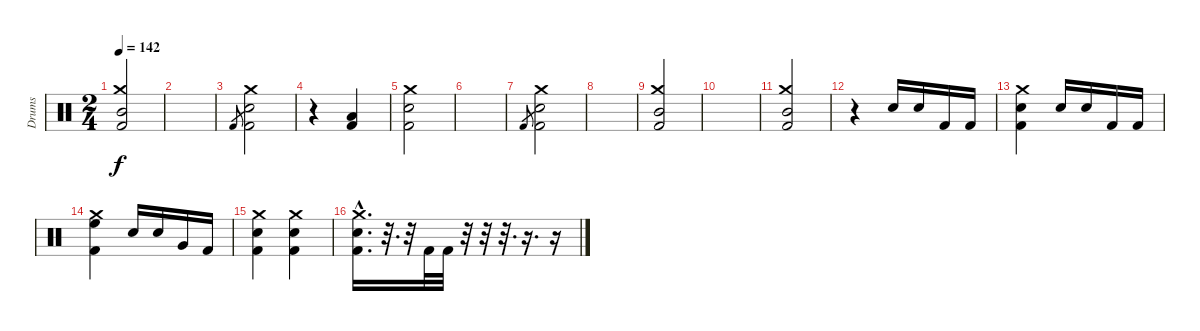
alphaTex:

\track ("Drums" "Drums") {instrument percussion}
\staff {score}
\articulation defaults
\ts (2 4)
\tempo 142
\clef neutral
\ks c
("Mid Tom (hit)" "Crash medium (hit)" "Kick (hit) 2").2{dy f} |
|
"Kick (hit) 2".8{gr} ("Crash medium (hit)" "Electric Snare (hit)" "Kick (hit) 2").2 |
r.4 ("Low Floor Tom (hit)" "Kick (hit) 2").4 |
("Electric Snare (hit)" "Crash medium (hit)" "Kick (hit) 2").2 |
|
"Kick (hit) 2".8{gr} ("Electric Snare (hit)" "Crash medium (hit)" "Kick (hit) 2").2 |
|
("Crash medium (hit)" "Mid Tom (hit)" "Kick (hit) 2").2 |
|
("Crash medium (hit)" "Mid Tom (hit)" "Kick (hit) 2").2 |
r.4 "Electric Snare (hit)".16 "Electric Snare (hit)".16 "Kick (hit) 2".16 "Kick (hit) 2".16 |
("Crash medium (hit)" "Electric Snare (hit)" "Kick (hit) 2").4 "Electric Snare (hit)".16 "Electric Snare (hit)".16 "Kick (hit) 2".16 "Kick (hit) 2".16 |
("Crash medium (hit)" "High Floor Tom (hit)" "Kick (hit) 2").4 "Electric Snare (hit)".16 "Electric Snare (hit)".16 "Very Low Tom (hit)".16 "Kick (hit) 2".16 |
("Electric Snare (hit)" "Crash medium (hit)" "Kick (hit) 2").4 ("Electric Snare (hit)" "Crash medium (hit)" "Kick (hit) 2").4 |
("Electric Snare (hit)"{hac} "Crash medium (hit)"{hac} "Kick (hit) 2"{hac}).16{d} r.32{d} r.32 "Kick (hit) 2".32 "Kick (hit) 2".32 r.32 r.32 r.32{d} r.16{d} r.16
